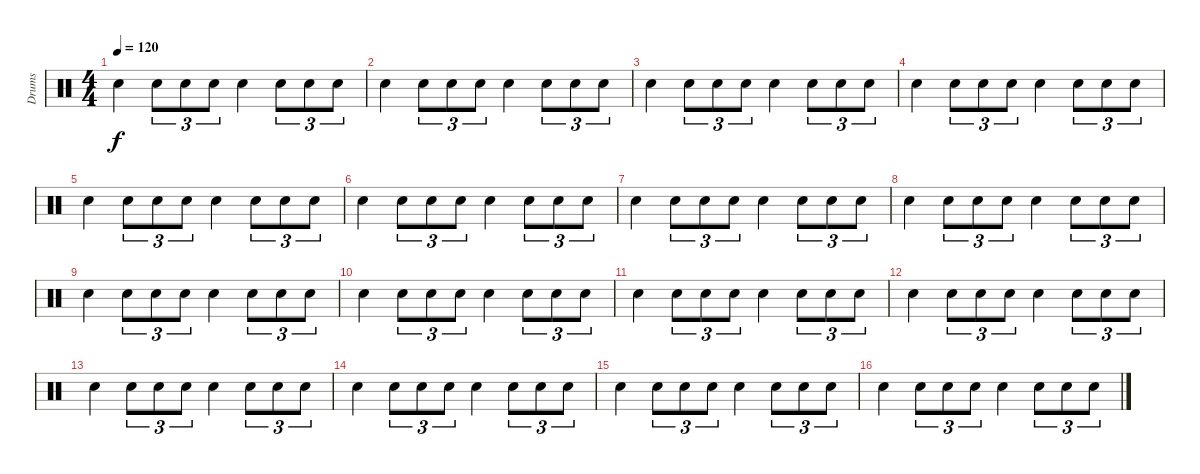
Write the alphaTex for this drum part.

\track ("Drums" "Drums") {instrument percussion}
\staff {score}
\articulation defaults
\ts (4 4)
\tempo 120
\clef neutral
\ks c "Electric Snare (hit)".4{dy f} "Electric Snare (hit)".8{tu (3 2)} "Electric Snare (hit)".8{tu (3 2)} "Electric Snare (hit)".8{tu (3 2)} "Electric Snare (hit)".4 "Electric Snare (hit)".8{tu (3 2)} "Electric Snare (hit)".8{tu (3 2)} "Electric Snare (hit)".8{tu (3 2)}
|
"Electric Snare (hit)".4 "Electric Snare (hit)".8{tu (3 2)} "Electric Snare (hit)".8{tu (3 2)} "Electric Snare (hit)".8{tu (3 2)} "Electric Snare (hit)".4 "Electric Snare (hit)".8{tu (3 2)} "Electric Snare (hit)".8{tu (3 2)} "Electric Snare (hit)".8{tu (3 2)} |
"Electric Snare (hit)".4 "Electric Snare (hit)".8{tu (3 2)} "Electric Snare (hit)".8{tu (3 2)} "Electric Snare (hit)".8{tu (3 2)} "Electric Snare (hit)".4 "Electric Snare (hit)".8{tu (3 2)} "Electric Snare (hit)".8{tu (3 2)} "Electric Snare (hit)".8{tu (3 2)} |
"Electric Snare (hit)".4 "Electric Snare (hit)".8{tu (3 2)} "Electric Snare (hit)".8{tu (3 2)} "Electric Snare (hit)".8{tu (3 2)} "Electric Snare (hit)".4 "Electric Snare (hit)".8{tu (3 2)} "Electric Snare (hit)".8{tu (3 2)} "Electric Snare (hit)".8{tu (3 2)} |
"Electric Snare (hit)".4 "Electric Snare (hit)".8{tu (3 2)} "Electric Snare (hit)".8{tu (3 2)} "Electric Snare (hit)".8{tu (3 2)} "Electric Snare (hit)".4 "Electric Snare (hit)".8{tu (3 2)} "Electric Snare (hit)".8{tu (3 2)} "Electric Snare (hit)".8{tu (3 2)} |
"Electric Snare (hit)".4 "Electric Snare (hit)".8{tu (3 2)} "Electric Snare (hit)".8{tu (3 2)} "Electric Snare (hit)".8{tu (3 2)} "Electric Snare (hit)".4 "Electric Snare (hit)".8{tu (3 2)} "Electric Snare (hit)".8{tu (3 2)} "Electric Snare (hit)".8{tu (3 2)} |
"Electric Snare (hit)".4 "Electric Snare (hit)".8{tu (3 2)} "Electric Snare (hit)".8{tu (3 2)} "Electric Snare (hit)".8{tu (3 2)} "Electric Snare (hit)".4 "Electric Snare (hit)".8{tu (3 2)} "Electric Snare (hit)".8{tu (3 2)} "Electric Snare (hit)".8{tu (3 2)} |
"Electric Snare (hit)".4 "Electric Snare (hit)".8{tu (3 2)} "Electric Snare (hit)".8{tu (3 2)} "Electric Snare (hit)".8{tu (3 2)} "Electric Snare (hit)".4 "Electric Snare (hit)".8{tu (3 2)} "Electric Snare (hit)".8{tu (3 2)} "Electric Snare (hit)".8{tu (3 2)} |
"Electric Snare (hit)".4 "Electric Snare (hit)".8{tu (3 2)} "Electric Snare (hit)".8{tu (3 2)} "Electric Snare (hit)".8{tu (3 2)} "Electric Snare (hit)".4 "Electric Snare (hit)".8{tu (3 2)} "Electric Snare (hit)".8{tu (3 2)} "Electric Snare (hit)".8{tu (3 2)} |
"Electric Snare (hit)".4 "Electric Snare (hit)".8{tu (3 2)} "Electric Snare (hit)".8{tu (3 2)} "Electric Snare (hit)".8{tu (3 2)} "Electric Snare (hit)".4 "Electric Snare (hit)".8{tu (3 2)} "Electric Snare (hit)".8{tu (3 2)} "Electric Snare (hit)".8{tu (3 2)} |
"Electric Snare (hit)".4 "Electric Snare (hit)".8{tu (3 2)} "Electric Snare (hit)".8{tu (3 2)} "Electric Snare (hit)".8{tu (3 2)} "Electric Snare (hit)".4 "Electric Snare (hit)".8{tu (3 2)} "Electric Snare (hit)".8{tu (3 2)} "Electric Snare (hit)".8{tu (3 2)} |
"Electric Snare (hit)".4 "Electric Snare (hit)".8{tu (3 2)} "Electric Snare (hit)".8{tu (3 2)} "Electric Snare (hit)".8{tu (3 2)} "Electric Snare (hit)".4 "Electric Snare (hit)".8{tu (3 2)} "Electric Snare (hit)".8{tu (3 2)} "Electric Snare (hit)".8{tu (3 2)} |
"Electric Snare (hit)".4 "Electric Snare (hit)".8{tu (3 2)} "Electric Snare (hit)".8{tu (3 2)} "Electric Snare (hit)".8{tu (3 2)} "Electric Snare (hit)".4 "Electric Snare (hit)".8{tu (3 2)} "Electric Snare (hit)".8{tu (3 2)} "Electric Snare (hit)".8{tu (3 2)} |
"Electric Snare (hit)".4 "Electric Snare (hit)".8{tu (3 2)} "Electric Snare (hit)".8{tu (3 2)} "Electric Snare (hit)".8{tu (3 2)} "Electric Snare (hit)".4 "Electric Snare (hit)".8{tu (3 2)} "Electric Snare (hit)".8{tu (3 2)} "Electric Snare (hit)".8{tu (3 2)} |
"Electric Snare (hit)".4 "Electric Snare (hit)".8{tu (3 2)} "Electric Snare (hit)".8{tu (3 2)} "Electric Snare (hit)".8{tu (3 2)} "Electric Snare (hit)".4 "Electric Snare (hit)".8{tu (3 2)} "Electric Snare (hit)".8{tu (3 2)} "Electric Snare (hit)".8{tu (3 2)} |
"Electric Snare (hit)".4 "Electric Snare (hit)".8{tu (3 2)} "Electric Snare (hit)".8{tu (3 2)} "Electric Snare (hit)".8{tu (3 2)} "Electric Snare (hit)".4 "Electric Snare (hit)".8{tu (3 2)} "Electric Snare (hit)".8{tu (3 2)} "Electric Snare (hit)".8{tu (3 2)}
